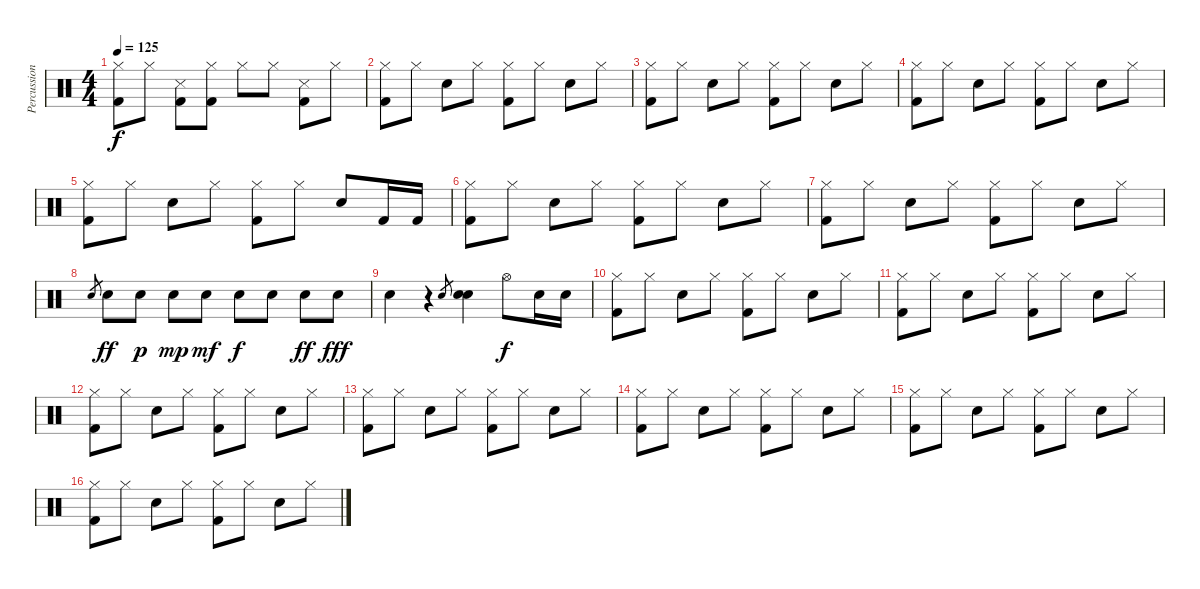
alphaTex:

\track ("Percussion" "Percussion") {instrument percussion}
\staff {score}
\articulation defaults
\ts (4 4)
\tempo 125
\clef neutral
\ks c
("Hi-Hat (closed)" "Kick (hit) 2").8{dy f} "Hi-Hat (closed)".8 ("Snare (side stick) 3" "Kick (hit) 2").8 ("Hi-Hat (closed)" "Kick (hit) 2").8 "Hi-Hat (closed)".8 "Hi-Hat (closed)".8 ("Snare (side stick) 3" "Kick (hit) 2").8 "Hi-Hat (closed)".8 |
("Hi-Hat (closed)" "Kick (hit) 2").8 "Hi-Hat (closed)".8 "Electric Snare (hit)".8 "Hi-Hat (closed)".8 ("Hi-Hat (closed)" "Kick (hit) 2").8 "Hi-Hat (closed)".8 "Electric Snare (hit)".8 "Hi-Hat (closed)".8 |
("Hi-Hat (closed)" "Kick (hit) 2").8 "Hi-Hat (closed)".8 "Electric Snare (hit)".8 "Hi-Hat (closed)".8 ("Hi-Hat (closed)" "Kick (hit) 2").8 "Hi-Hat (closed)".8 "Electric Snare (hit)".8 "Hi-Hat (closed)".8 |
("Hi-Hat (closed)" "Kick (hit) 2").8 "Hi-Hat (closed)".8 "Electric Snare (hit)".8 "Hi-Hat (closed)".8 ("Hi-Hat (closed)" "Kick (hit) 2").8 "Hi-Hat (closed)".8 "Electric Snare (hit)".8 "Hi-Hat (closed)".8 |
("Hi-Hat (closed)" "Kick (hit) 2").8 "Hi-Hat (closed)".8 "Electric Snare (hit)".8 "Hi-Hat (closed)".8 ("Hi-Hat (closed)" "Kick (hit) 2").8 "Hi-Hat (closed)".8 "Electric Snare (hit)".8 "Kick (hit) 2".16 "Kick (hit) 2".16 |
("Hi-Hat (closed)" "Kick (hit) 2").8 "Hi-Hat (closed)".8 "Electric Snare (hit)".8 "Hi-Hat (closed)".8 ("Hi-Hat (closed)" "Kick (hit) 2").8 "Hi-Hat (closed)".8 "Electric Snare (hit)".8 "Hi-Hat (closed)".8 |
("Hi-Hat (closed)" "Kick (hit) 2").8 "Hi-Hat (closed)".8 "Electric Snare (hit)".8 "Hi-Hat (closed)".8 ("Hi-Hat (closed)" "Kick (hit) 2").8 "Hi-Hat (closed)".8 "Electric Snare (hit)".8 "Hi-Hat (closed)".8 |
"Electric Snare (hit)".8{gr} "Electric Snare (hit)".8{dy ff} "Electric Snare (hit)".8{dy p} "Electric Snare (hit)".8{dy mp} "Electric Snare (hit)".8{dy mf} "Electric Snare (hit)".8{dy f} "Electric Snare (hit)".8 "Electric Snare (hit)".8{dy ff} "Electric Snare (hit)".8{dy fff} |
"Electric Snare (hit)".4 r.4 "Electric Snare (hit)".8{gr} ("Electric Snare (hit)" "Electric Snare (hit)").4 "Hi-Hat (open)".8{dy f} "Electric Snare (hit)".16 "Electric Snare (hit)".16 |
("Hi-Hat (closed)" "Kick (hit) 2").8 "Hi-Hat (closed)".8 "Electric Snare (hit)".8 "Hi-Hat (closed)".8 ("Hi-Hat (closed)" "Kick (hit) 2").8 "Hi-Hat (closed)".8 "Electric Snare (hit)".8 "Hi-Hat (closed)".8 |
("Hi-Hat (closed)" "Kick (hit) 2").8 "Hi-Hat (closed)".8 "Electric Snare (hit)".8 "Hi-Hat (closed)".8 ("Hi-Hat (closed)" "Kick (hit) 2").8 "Hi-Hat (closed)".8 "Electric Snare (hit)".8 "Hi-Hat (closed)".8 |
("Hi-Hat (closed)" "Kick (hit) 2").8 "Hi-Hat (closed)".8 "Electric Snare (hit)".8 "Hi-Hat (closed)".8 ("Hi-Hat (closed)" "Kick (hit) 2").8 "Hi-Hat (closed)".8 "Electric Snare (hit)".8 "Hi-Hat (closed)".8 |
("Hi-Hat (closed)" "Kick (hit) 2").8 "Hi-Hat (closed)".8 "Electric Snare (hit)".8 "Hi-Hat (closed)".8 ("Hi-Hat (closed)" "Kick (hit) 2").8 "Hi-Hat (closed)".8 "Electric Snare (hit)".8 "Hi-Hat (closed)".8 |
("Hi-Hat (closed)" "Kick (hit) 2").8 "Hi-Hat (closed)".8 "Electric Snare (hit)".8 "Hi-Hat (closed)".8 ("Hi-Hat (closed)" "Kick (hit) 2").8 "Hi-Hat (closed)".8 "Electric Snare (hit)".8 "Hi-Hat (closed)".8 |
("Hi-Hat (closed)" "Kick (hit) 2").8 "Hi-Hat (closed)".8 "Electric Snare (hit)".8 "Hi-Hat (closed)".8 ("Hi-Hat (closed)" "Kick (hit) 2").8 "Hi-Hat (closed)".8 "Electric Snare (hit)".8 "Hi-Hat (closed)".8 |
("Hi-Hat (closed)" "Kick (hit) 2").8 "Hi-Hat (closed)".8 "Electric Snare (hit)".8 "Hi-Hat (closed)".8 ("Hi-Hat (closed)" "Kick (hit) 2").8 "Hi-Hat (closed)".8 "Electric Snare (hit)".8 "Hi-Hat (closed)".8
